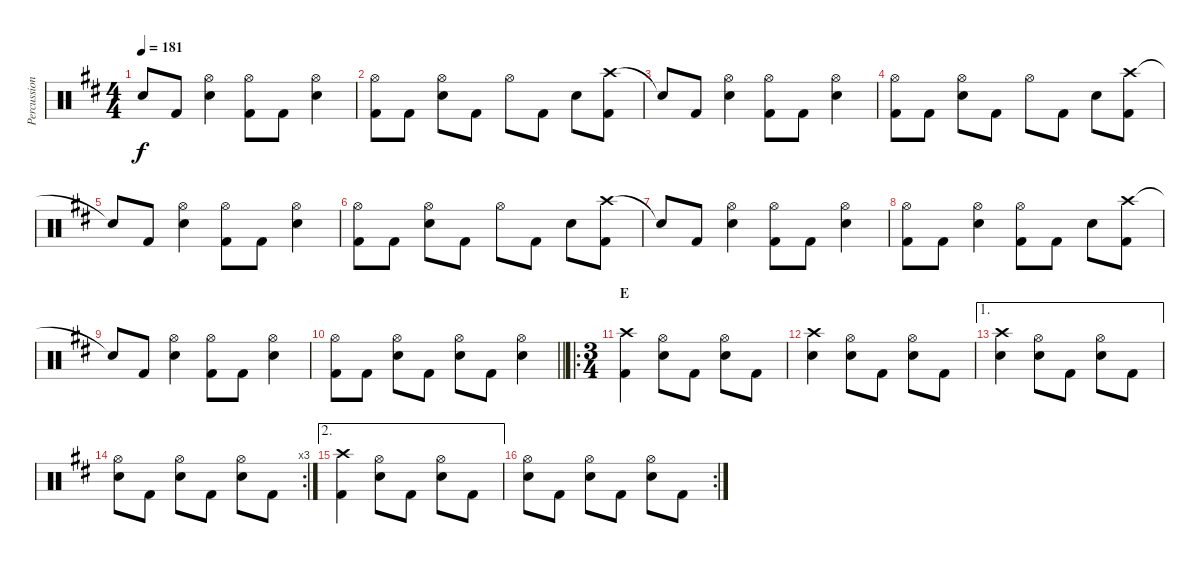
\track ("Percussion" "Percussion") {instrument percussion}
\staff {score}
\articulation defaults
\ts (4 4)
\tempo 181
\clef neutral
\ks d "Snare (hit)"{t}.8{dy f} "Kick (hit) 2".8
("Hi-Hat (open)" "Snare (hit) 2").4 ("Hi-Hat (open)" "Kick (hit) 2").8 "Kick (hit) 2".8 ("Hi-Hat (open)" "Snare (hit) 2").4 |
("Hi-Hat (open)" "Kick (hit) 2").8 "Kick (hit) 2".8 ("Hi-Hat (open)" "Snare (hit) 2").8 "Kick (hit) 2".8 "Hi-Hat (open)".8 "Kick (hit) 2".8 "Snare (hit) 2".8 ("Crash high (hit)" "Kick (hit) 2").8 |
"Snare (hit)"{t}.8 "Kick (hit) 2".8 ("Hi-Hat (open)" "Snare (hit) 2").4 ("Hi-Hat (open)" "Kick (hit) 2").8 "Kick (hit) 2".8 ("Hi-Hat (open)" "Snare (hit) 2").4 |
("Hi-Hat (open)" "Kick (hit) 2").8 "Kick (hit) 2".8 ("Hi-Hat (open)" "Snare (hit) 2").8 "Kick (hit) 2".8 "Hi-Hat (open)".8 "Kick (hit) 2".8 "Snare (hit) 2".8 ("Crash high (hit)" "Kick (hit) 2").8 |
"Snare (hit)"{t}.8 "Kick (hit) 2".8 ("Hi-Hat (open)" "Snare (hit) 2").4 ("Hi-Hat (open)" "Kick (hit) 2").8 "Kick (hit) 2".8 ("Hi-Hat (open)" "Snare (hit) 2").4 |
("Hi-Hat (open)" "Kick (hit) 2").8 "Kick (hit) 2".8 ("Hi-Hat (open)" "Snare (hit) 2").8 "Kick (hit) 2".8 "Hi-Hat (open)".8 "Kick (hit) 2".8 "Snare (hit) 2".8 ("Crash high (hit)" "Kick (hit) 2").8 |
"Snare (hit)"{t}.8 "Kick (hit) 2".8 ("Hi-Hat (open)" "Snare (hit) 2").4 ("Hi-Hat (open)" "Kick (hit) 2").8 "Kick (hit) 2".8 ("Hi-Hat (open)" "Snare (hit) 2").4 |
("Hi-Hat (open)" "Kick (hit) 2").8 "Kick (hit) 2".8 ("Hi-Hat (open)" "Snare (hit) 2").4 ("Hi-Hat (open)" "Kick (hit) 2").8 "Kick (hit) 2".8 "Snare (hit) 2".8 ("Crash high (hit)" "Kick (hit) 2").8 |
"Snare (hit)"{t}.8 "Kick (hit) 2".8 ("Hi-Hat (open)" "Snare (hit) 2").4 ("Hi-Hat (open)" "Kick (hit) 2").8 "Kick (hit) 2".8 ("Hi-Hat (open)" "Snare (hit) 2").4 |
\barLineRight lightlight
("Hi-Hat (open)" "Kick (hit) 2").8 "Kick (hit) 2".8 ("Hi-Hat (open)" "Snare (hit) 2").8 "Kick (hit) 2".8 ("Hi-Hat (open)" "Snare (hit) 2").8 "Kick (hit) 2".8 ("Hi-Hat (open)" "Snare (hit) 2").4 |
\ro
\ts (3 4)
\section ("" "E")
("Crash high (hit)" "Kick (hit) 2").4 ("Hi-Hat (open)" "Snare (hit) 2").8 "Kick (hit) 2".8 ("Hi-Hat (open)" "Snare (hit) 2").8 "Kick (hit) 2".8 |
("Crash high (hit)" "Snare (hit) 2").4 ("Hi-Hat (open)" "Snare (hit) 2").8 "Kick (hit) 2".8 ("Hi-Hat (open)" "Snare (hit) 2").8 "Kick (hit) 2".8 |
\ae 1
("Crash high (hit)" "Snare (hit) 2").4 ("Hi-Hat (open)" "Snare (hit) 2").8 "Kick (hit) 2".8 ("Hi-Hat (open)" "Snare (hit) 2").8 "Kick (hit) 2".8 |
\rc 3
("Hi-Hat (open)" "Snare (hit) 2").8 "Kick (hit) 2".8 ("Hi-Hat (open)" "Snare (hit) 2").8 "Kick (hit) 2".8 ("Hi-Hat (open)" "Snare (hit) 2").8 "Kick (hit) 2".8 |
\ae 2
("Crash high (hit)" "Kick (hit) 2").4 ("Hi-Hat (open)" "Snare (hit) 2").8 "Kick (hit) 2".8 ("Hi-Hat (open)" "Snare (hit) 2").8 "Kick (hit) 2".8 |
\rc 2
("Hi-Hat (open)" "Snare (hit) 2").8 "Kick (hit) 2".8 ("Hi-Hat (open)" "Snare (hit) 2").8 "Kick (hit) 2".8 ("Hi-Hat (open)" "Snare (hit) 2").8 "Kick (hit) 2".8
